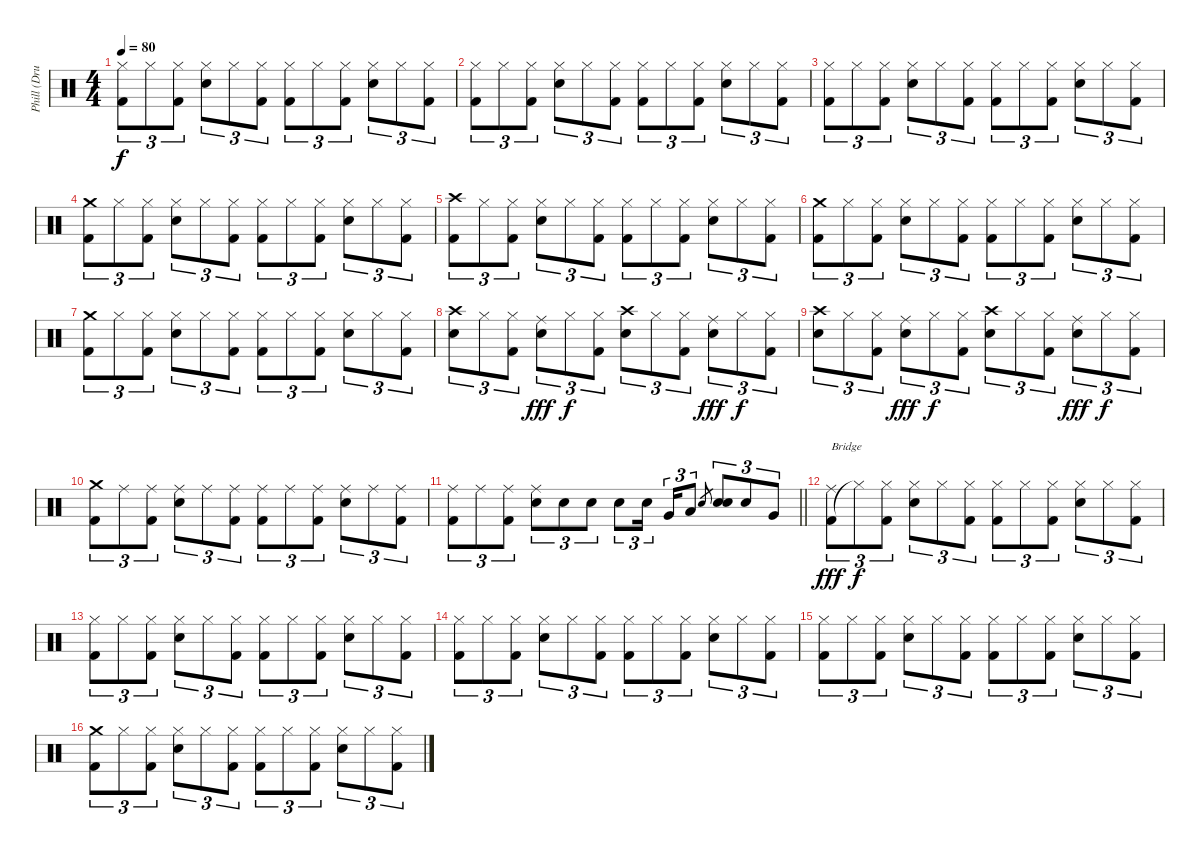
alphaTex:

\track ("Phill (Drums)" "Phill (Dru") {instrument percussion}
\staff {score}
\articulation defaults
\ts (4 4)
\tempo 80
\clef neutral
\ks c
("Kick (hit) 2" "Hi-Hat (closed)").8{tu (3 2) dy f} "Hi-Hat (closed)".8{tu (3 2)} ("Kick (hit) 2" "Hi-Hat (closed)").8{tu (3 2)} ("Electric Snare (hit)" "Hi-Hat (closed)").8{tu (3 2)} "Hi-Hat (closed)".8{tu (3 2)} ("Kick (hit) 2" "Hi-Hat (closed)").8{tu (3 2)} ("Kick (hit) 2" "Hi-Hat (closed)").8{tu (3 2)} "Hi-Hat (closed)".8{tu (3 2)} ("Kick (hit) 2" "Hi-Hat (closed)").8{tu (3 2)} ("Electric Snare (hit)" "Hi-Hat (closed)").8{tu (3 2)} "Hi-Hat (closed)".8{tu (3 2)} ("Kick (hit) 2" "Hi-Hat (closed)").8{tu (3 2)} |
("Kick (hit) 2" "Hi-Hat (closed)").8{tu (3 2)} "Hi-Hat (closed)".8{tu (3 2)} ("Kick (hit) 2" "Hi-Hat (closed)").8{tu (3 2)} ("Electric Snare (hit)" "Hi-Hat (closed)").8{tu (3 2)} "Hi-Hat (closed)".8{tu (3 2)} ("Kick (hit) 2" "Hi-Hat (closed)").8{tu (3 2)} ("Kick (hit) 2" "Hi-Hat (closed)").8{tu (3 2)} "Hi-Hat (closed)".8{tu (3 2)} ("Kick (hit) 2" "Hi-Hat (closed)").8{tu (3 2)} ("Electric Snare (hit)" "Hi-Hat (closed)").8{tu (3 2)} "Hi-Hat (closed)".8{tu (3 2)} ("Kick (hit) 2" "Hi-Hat (closed)").8{tu (3 2)} |
("Kick (hit) 2" "Hi-Hat (closed)").8{tu (3 2)} "Hi-Hat (closed)".8{tu (3 2)} ("Kick (hit) 2" "Hi-Hat (closed)").8{tu (3 2)} ("Electric Snare (hit)" "Hi-Hat (closed)").8{tu (3 2)} "Hi-Hat (closed)".8{tu (3 2)} ("Kick (hit) 2" "Hi-Hat (closed)").8{tu (3 2)} ("Kick (hit) 2" "Hi-Hat (closed)").8{tu (3 2)} "Hi-Hat (closed)".8{tu (3 2)} ("Kick (hit) 2" "Hi-Hat (closed)").8{tu (3 2)} ("Electric Snare (hit)" "Hi-Hat (closed)").8{tu (3 2)} "Hi-Hat (closed)".8{tu (3 2)} ("Kick (hit) 2" "Hi-Hat (closed)").8{tu (3 2)} |
("Kick (hit) 2" "Crash medium (hit)").8{tu (3 2)} "Hi-Hat (closed)".8{tu (3 2)} ("Kick (hit) 2" "Hi-Hat (closed)").8{tu (3 2)} ("Electric Snare (hit)" "Hi-Hat (closed)").8{tu (3 2)} "Hi-Hat (closed)".8{tu (3 2)} ("Kick (hit) 2" "Hi-Hat (closed)").8{tu (3 2)} ("Kick (hit) 2" "Hi-Hat (closed)").8{tu (3 2)} "Hi-Hat (closed)".8{tu (3 2)} ("Kick (hit) 2" "Hi-Hat (closed)").8{tu (3 2)} ("Electric Snare (hit)" "Hi-Hat (closed)").8{tu (3 2)} "Hi-Hat (closed)".8{tu (3 2)} ("Kick (hit) 2" "Hi-Hat (closed)").8{tu (3 2)} |
("Kick (hit) 2" "Crash high (hit)").8{tu (3 2)} "Hi-Hat (closed)".8{tu (3 2)} ("Kick (hit) 2" "Hi-Hat (closed)").8{tu (3 2)} ("Electric Snare (hit)" "Hi-Hat (closed)").8{tu (3 2)} "Hi-Hat (closed)".8{tu (3 2)} ("Kick (hit) 2" "Hi-Hat (closed)").8{tu (3 2)} ("Kick (hit) 2" "Hi-Hat (closed)").8{tu (3 2)} "Hi-Hat (closed)".8{tu (3 2)} ("Kick (hit) 2" "Hi-Hat (closed)").8{tu (3 2)} ("Electric Snare (hit)" "Hi-Hat (closed)").8{tu (3 2)} "Hi-Hat (closed)".8{tu (3 2)} ("Kick (hit) 2" "Hi-Hat (closed)").8{tu (3 2)} |
("Kick (hit) 2" "Crash medium (hit)").8{tu (3 2)} "Hi-Hat (closed)".8{tu (3 2)} ("Kick (hit) 2" "Hi-Hat (closed)").8{tu (3 2)} ("Electric Snare (hit)" "Hi-Hat (closed)").8{tu (3 2)} "Hi-Hat (closed)".8{tu (3 2)} ("Kick (hit) 2" "Hi-Hat (closed)").8{tu (3 2)} ("Kick (hit) 2" "Hi-Hat (closed)").8{tu (3 2)} "Hi-Hat (closed)".8{tu (3 2)} ("Kick (hit) 2" "Hi-Hat (closed)").8{tu (3 2)} ("Electric Snare (hit)" "Hi-Hat (closed)").8{tu (3 2)} "Hi-Hat (closed)".8{tu (3 2)} ("Kick (hit) 2" "Hi-Hat (closed)").8{tu (3 2)} |
("Kick (hit) 2" "Crash medium (hit)").8{tu (3 2)} "Hi-Hat (closed)".8{tu (3 2)} ("Kick (hit) 2" "Hi-Hat (closed)").8{tu (3 2)} ("Electric Snare (hit)" "Hi-Hat (closed)").8{tu (3 2)} "Hi-Hat (closed)".8{tu (3 2)} ("Kick (hit) 2" "Hi-Hat (closed)").8{tu (3 2)} ("Kick (hit) 2" "Hi-Hat (closed)").8{tu (3 2)} "Hi-Hat (closed)".8{tu (3 2)} ("Kick (hit) 2" "Hi-Hat (closed)").8{tu (3 2)} ("Electric Snare (hit)" "Hi-Hat (closed)").8{tu (3 2)} "Hi-Hat (closed)".8{tu (3 2)} ("Kick (hit) 2" "Hi-Hat (closed)").8{tu (3 2)} |
("Electric Snare (hit)" "Crash high (hit)").8{tu (3 2)} "Hi-Hat (closed)".8{tu (3 2)} ("Kick (hit) 2" "Hi-Hat (closed)").8{tu (3 2)} ("Electric Snare (hit)" "Ride (middle)").8{tu (3 2) dy fff} "Hi-Hat (closed)".8{tu (3 2) dy f} ("Kick (hit) 2" "Hi-Hat (closed)").8{tu (3 2)} ("Electric Snare (hit)" "Crash high (hit)").8{tu (3 2)} "Hi-Hat (closed)".8{tu (3 2)} ("Kick (hit) 2" "Hi-Hat (closed)").8{tu (3 2)} ("Electric Snare (hit)" "Ride (middle)").8{tu (3 2) dy fff} "Hi-Hat (closed)".8{tu (3 2) dy f} ("Kick (hit) 2" "Hi-Hat (closed)").8{tu (3 2)} |
("Electric Snare (hit)" "Crash high (hit)").8{tu (3 2)} "Hi-Hat (closed)".8{tu (3 2)} ("Kick (hit) 2" "Hi-Hat (closed)").8{tu (3 2)} ("Electric Snare (hit)" "Ride (middle)").8{tu (3 2) dy fff} "Hi-Hat (closed)".8{tu (3 2) dy f} ("Kick (hit) 2" "Hi-Hat (closed)").8{tu (3 2)} ("Electric Snare (hit)" "Crash high (hit)").8{tu (3 2)} "Hi-Hat (closed)".8{tu (3 2)} ("Kick (hit) 2" "Hi-Hat (closed)").8{tu (3 2)} ("Electric Snare (hit)" "Ride (middle)").8{tu (3 2) dy fff} "Hi-Hat (closed)".8{tu (3 2) dy f} ("Kick (hit) 2" "Hi-Hat (closed)").8{tu (3 2)} |
("Kick (hit) 2" "Crash medium (hit)").8{tu (3 2)} "Ride (middle)".8{tu (3 2)} ("Kick (hit) 2" "Ride (middle)").8{tu (3 2)} ("Electric Snare (hit)" "Ride (middle)").8{tu (3 2)} "Ride (middle)".8{tu (3 2)} ("Kick (hit) 2" "Ride (middle)").8{tu (3 2)} ("Kick (hit) 2" "Ride (middle)").8{tu (3 2)} "Ride (middle)".8{tu (3 2)} ("Kick (hit) 2" "Ride (middle)").8{tu (3 2)} ("Electric Snare (hit)" "Ride (middle)").8{tu (3 2)} "Ride (middle)".8{tu (3 2)} ("Kick (hit) 2" "Ride (middle)").8{tu (3 2)} |
\barLineRight lightlight
("Kick (hit) 2" "Ride (middle)").8{tu (3 2)} "Ride (middle)".8{tu (3 2)} ("Kick (hit) 2" "Ride (middle)").8{tu (3 2)} ("Electric Snare (hit)" "Ride (middle)").8{tu (3 2)} "Electric Snare (hit)".8{tu (3 2)} "Electric Snare (hit)".8{tu (3 2)} "Electric Snare (hit)".8{tu (3 2)} "Electric Snare (hit)".16{tu (3 2) beam splitsecondary} "Very Low Tom (hit)".16{tu (3 2)} "Low Floor Tom (hit)".8{tu (3 2)} "Electric Snare (hit)".8{gr} ("Electric Snare (hit)" "Electric Snare (hit)").8{tu (3 2)} "Electric Snare (hit)".8{tu (3 2)} "Very Low Tom (hit)".8{tu (3 2)} |
("Kick (hit) 2" "Ride (middle)").8{tu (3 2) txt "Bridge" dy fff} "Hi-Hat (closed)"{t}.8{tu (3 2) dy f} ("Kick (hit) 2" "Hi-Hat (closed)").8{tu (3 2)} ("Electric Snare (hit)" "Hi-Hat (closed)").8{tu (3 2)} "Hi-Hat (closed)".8{tu (3 2)} ("Kick (hit) 2" "Hi-Hat (closed)").8{tu (3 2)} ("Kick (hit) 2" "Hi-Hat (closed)").8{tu (3 2)} "Hi-Hat (closed)".8{tu (3 2)} ("Kick (hit) 2" "Hi-Hat (closed)").8{tu (3 2)} ("Electric Snare (hit)" "Hi-Hat (closed)").8{tu (3 2)} "Hi-Hat (closed)".8{tu (3 2)} ("Kick (hit) 2" "Hi-Hat (closed)").8{tu (3 2)} |
("Kick (hit) 2" "Hi-Hat (closed)").8{tu (3 2)} "Hi-Hat (closed)".8{tu (3 2)} ("Kick (hit) 2" "Hi-Hat (closed)").8{tu (3 2)} ("Electric Snare (hit)" "Hi-Hat (closed)").8{tu (3 2)} "Hi-Hat (closed)".8{tu (3 2)} ("Kick (hit) 2" "Hi-Hat (closed)").8{tu (3 2)} ("Kick (hit) 2" "Hi-Hat (closed)").8{tu (3 2)} "Hi-Hat (closed)".8{tu (3 2)} ("Kick (hit) 2" "Hi-Hat (closed)").8{tu (3 2)} ("Electric Snare (hit)" "Hi-Hat (closed)").8{tu (3 2)} "Hi-Hat (closed)".8{tu (3 2)} ("Kick (hit) 2" "Hi-Hat (closed)").8{tu (3 2)} |
("Kick (hit) 2" "Hi-Hat (closed)").8{tu (3 2)} "Hi-Hat (closed)".8{tu (3 2)} ("Kick (hit) 2" "Hi-Hat (closed)").8{tu (3 2)} ("Electric Snare (hit)" "Hi-Hat (closed)").8{tu (3 2)} "Hi-Hat (closed)".8{tu (3 2)} ("Kick (hit) 2" "Hi-Hat (closed)").8{tu (3 2)} ("Kick (hit) 2" "Hi-Hat (closed)").8{tu (3 2)} "Hi-Hat (closed)".8{tu (3 2)} ("Kick (hit) 2" "Hi-Hat (closed)").8{tu (3 2)} ("Electric Snare (hit)" "Hi-Hat (closed)").8{tu (3 2)} "Hi-Hat (closed)".8{tu (3 2)} ("Kick (hit) 2" "Hi-Hat (closed)").8{tu (3 2)} |
("Kick (hit) 2" "Hi-Hat (closed)").8{tu (3 2)} "Hi-Hat (closed)".8{tu (3 2)} ("Kick (hit) 2" "Hi-Hat (closed)").8{tu (3 2)} ("Electric Snare (hit)" "Hi-Hat (closed)").8{tu (3 2)} "Hi-Hat (closed)".8{tu (3 2)} ("Kick (hit) 2" "Hi-Hat (closed)").8{tu (3 2)} ("Kick (hit) 2" "Hi-Hat (closed)").8{tu (3 2)} "Hi-Hat (closed)".8{tu (3 2)} ("Kick (hit) 2" "Hi-Hat (closed)").8{tu (3 2)} ("Electric Snare (hit)" "Hi-Hat (closed)").8{tu (3 2)} "Hi-Hat (closed)".8{tu (3 2)} ("Kick (hit) 2" "Hi-Hat (closed)").8{tu (3 2)} |
("Kick (hit) 2" "Crash medium (hit)").8{tu (3 2)} "Hi-Hat (closed)".8{tu (3 2)} ("Kick (hit) 2" "Hi-Hat (closed)").8{tu (3 2)} ("Electric Snare (hit)" "Hi-Hat (closed)").8{tu (3 2)} "Hi-Hat (closed)".8{tu (3 2)} ("Kick (hit) 2" "Hi-Hat (closed)").8{tu (3 2)} ("Kick (hit) 2" "Hi-Hat (closed)").8{tu (3 2)} "Hi-Hat (closed)".8{tu (3 2)} ("Kick (hit) 2" "Hi-Hat (closed)").8{tu (3 2)} ("Electric Snare (hit)" "Hi-Hat (closed)").8{tu (3 2)} "Hi-Hat (closed)".8{tu (3 2)} ("Kick (hit) 2" "Hi-Hat (closed)").8{tu (3 2)}
